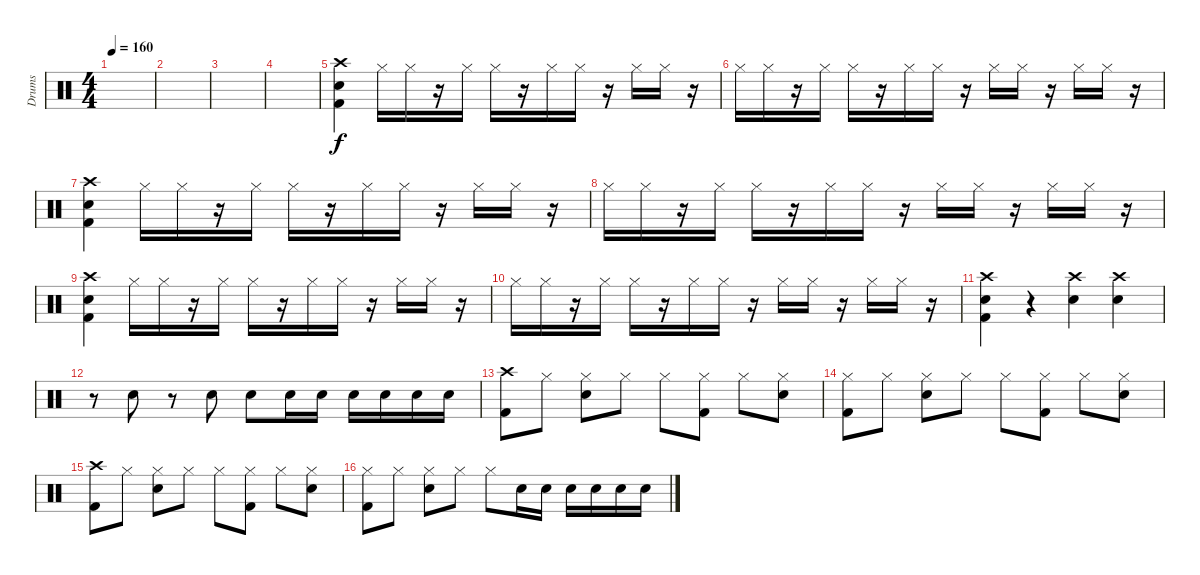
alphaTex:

\track ("Drums" "Drums") {solo instrument percussion}
\staff {score}
\articulation defaults
\ts (4 4)
\tempo 160
\clef neutral
\ks c
|
|
|
|
("Crash high (hit)" "Snare (hit) 2" "Kick (hit) 2").4 "Hi-Hat (closed)".16 "Hi-Hat (closed)".16 r.16 "Hi-Hat (closed)".16 "Hi-Hat (closed)".16 r.16 "Hi-Hat (closed)".16 "Hi-Hat (closed)".16 r.16 "Hi-Hat (closed)".16 "Hi-Hat (closed)".16 r.16 |
"Hi-Hat (closed)".16 "Hi-Hat (closed)".16 r.16 "Hi-Hat (closed)".16 "Hi-Hat (closed)".16 r.16 "Hi-Hat (closed)".16 "Hi-Hat (closed)".16 r.16 "Hi-Hat (closed)".16 "Hi-Hat (closed)".16 r.16 "Hi-Hat (closed)".16 "Hi-Hat (closed)".16 r.16 |
("Crash high (hit)" "Snare (hit) 2" "Kick (hit) 2").4 "Hi-Hat (closed)".16 "Hi-Hat (closed)".16 r.16 "Hi-Hat (closed)".16 "Hi-Hat (closed)".16 r.16 "Hi-Hat (closed)".16 "Hi-Hat (closed)".16 r.16 "Hi-Hat (closed)".16 "Hi-Hat (closed)".16 r.16 |
"Hi-Hat (closed)".16 "Hi-Hat (closed)".16 r.16 "Hi-Hat (closed)".16 "Hi-Hat (closed)".16 r.16 "Hi-Hat (closed)".16 "Hi-Hat (closed)".16 r.16 "Hi-Hat (closed)".16 "Hi-Hat (closed)".16 r.16 "Hi-Hat (closed)".16 "Hi-Hat (closed)".16 r.16 |
("Crash high (hit)" "Snare (hit) 2" "Kick (hit) 2").4 "Hi-Hat (closed)".16 "Hi-Hat (closed)".16 r.16 "Hi-Hat (closed)".16 "Hi-Hat (closed)".16 r.16 "Hi-Hat (closed)".16 "Hi-Hat (closed)".16 r.16 "Hi-Hat (closed)".16 "Hi-Hat (closed)".16 r.16 |
"Hi-Hat (closed)".16 "Hi-Hat (closed)".16 r.16 "Hi-Hat (closed)".16 "Hi-Hat (closed)".16 r.16 "Hi-Hat (closed)".16 "Hi-Hat (closed)".16 r.16 "Hi-Hat (closed)".16 "Hi-Hat (closed)".16 r.16 "Hi-Hat (closed)".16 "Hi-Hat (closed)".16 r.16 |
("Crash high (hit)" "Snare (hit) 2" "Kick (hit) 2").4 r.4 ("Crash high (hit)" "Snare (hit) 2").4 ("Crash high (hit)" "Snare (hit) 2").4 |
r.8 "Snare (hit) 2".8 r.8 "Snare (hit) 2".8 "Snare (hit) 2".8 "Snare (hit) 2".16 "Snare (hit) 2".16 "Snare (hit) 2".16 "Snare (hit) 2".16 "Snare (hit) 2".16 "Snare (hit) 2".16 |
("Crash high (hit)" "Kick (hit) 2").8 "Hi-Hat (closed)".8 ("Hi-Hat (closed)" "Snare (hit) 2").8 "Hi-Hat (closed)".8 "Hi-Hat (closed)".8 ("Hi-Hat (closed)" "Kick (hit) 2").8 "Hi-Hat (closed)".8 ("Hi-Hat (closed)" "Snare (hit) 2").8 |
("Hi-Hat (closed)" "Kick (hit) 2").8 "Hi-Hat (closed)".8 ("Hi-Hat (closed)" "Snare (hit) 2").8 "Hi-Hat (closed)".8 "Hi-Hat (closed)".8 ("Hi-Hat (closed)" "Kick (hit) 2").8 "Hi-Hat (closed)".8 ("Hi-Hat (closed)" "Snare (hit) 2").8 |
("Crash high (hit)" "Kick (hit) 2").8 "Hi-Hat (closed)".8 ("Hi-Hat (closed)" "Snare (hit) 2").8 "Hi-Hat (closed)".8 "Hi-Hat (closed)".8 ("Hi-Hat (closed)" "Kick (hit) 2").8 "Hi-Hat (closed)".8 ("Hi-Hat (closed)" "Snare (hit) 2").8 |
("Hi-Hat (closed)" "Kick (hit) 2").8 "Hi-Hat (closed)".8 ("Hi-Hat (closed)" "Snare (hit) 2").8 "Hi-Hat (closed)".8 "Hi-Hat (closed)".8 "Snare (hit) 2".16 "Snare (hit) 2".16 "Snare (hit) 2".16 "Snare (hit) 2".16 "Snare (hit) 2".16 "Snare (hit) 2".16
